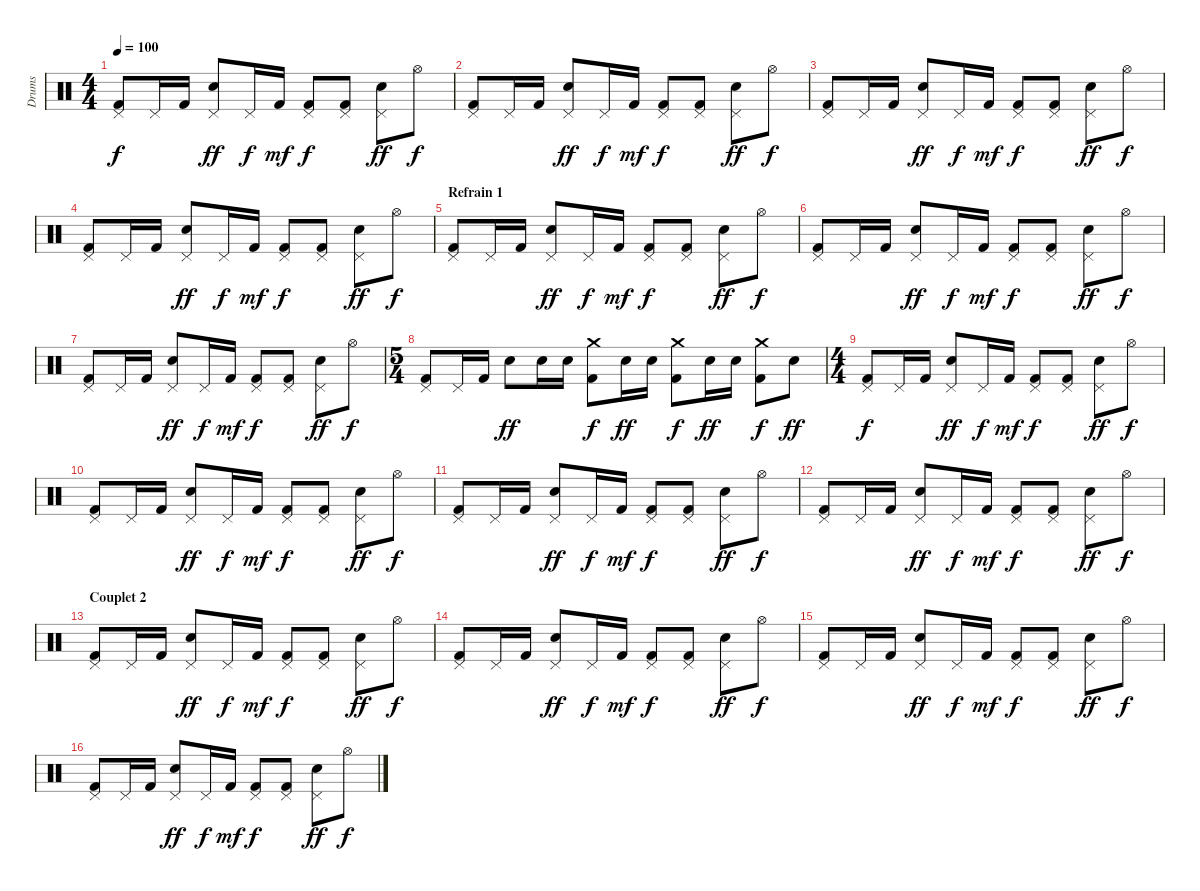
\track ("Drums" "Drums") {instrument percussion}
\staff {score}
\articulation defaults
\ts (4 4)
\tempo 100
\clef neutral
\ks c
("Pedal Hi-Hat (hit)" "Kick (hit) 2").8{dy f} "Pedal Hi-Hat (hit)".16 "Kick (hit) 2".16 ("Pedal Hi-Hat (hit)" "Snare (hit) 2").8{dy ff} "Pedal Hi-Hat (hit)".16{dy f} "Kick (hit) 2".16{dy mf} ("Pedal Hi-Hat (hit)" "Kick (hit) 2").8{dy f} ("Pedal Hi-Hat (hit)" "Kick (hit) 2").8 ("Pedal Hi-Hat (hit)" "Snare (hit) 2").8{dy ff} "Hi-Hat (open)".8{dy f} |
("Pedal Hi-Hat (hit)" "Kick (hit) 2").8 "Pedal Hi-Hat (hit)".16 "Kick (hit) 2".16 ("Pedal Hi-Hat (hit)" "Snare (hit) 2").8{dy ff} "Pedal Hi-Hat (hit)".16{dy f} "Kick (hit) 2".16{dy mf} ("Pedal Hi-Hat (hit)" "Kick (hit) 2").8{dy f} ("Pedal Hi-Hat (hit)" "Kick (hit) 2").8 ("Pedal Hi-Hat (hit)" "Snare (hit) 2").8{dy ff} "Hi-Hat (open)".8{dy f} |
("Pedal Hi-Hat (hit)" "Kick (hit) 2").8 "Pedal Hi-Hat (hit)".16 "Kick (hit) 2".16 ("Pedal Hi-Hat (hit)" "Snare (hit) 2").8{dy ff} "Pedal Hi-Hat (hit)".16{dy f} "Kick (hit) 2".16{dy mf} ("Pedal Hi-Hat (hit)" "Kick (hit) 2").8{dy f} ("Pedal Hi-Hat (hit)" "Kick (hit) 2").8 ("Pedal Hi-Hat (hit)" "Snare (hit) 2").8{dy ff} "Hi-Hat (open)".8{dy f} |
("Pedal Hi-Hat (hit)" "Kick (hit) 2").8 "Pedal Hi-Hat (hit)".16 "Kick (hit) 2".16 ("Pedal Hi-Hat (hit)" "Snare (hit) 2").8{dy ff} "Pedal Hi-Hat (hit)".16{dy f} "Kick (hit) 2".16{dy mf} ("Pedal Hi-Hat (hit)" "Kick (hit) 2").8{dy f} ("Pedal Hi-Hat (hit)" "Kick (hit) 2").8 ("Pedal Hi-Hat (hit)" "Snare (hit) 2").8{dy ff} "Hi-Hat (open)".8{dy f} |
\section ("" "Refrain 1")
("Pedal Hi-Hat (hit)" "Kick (hit) 2").8 "Pedal Hi-Hat (hit)".16 "Kick (hit) 2".16 ("Pedal Hi-Hat (hit)" "Snare (hit) 2").8{dy ff} "Pedal Hi-Hat (hit)".16{dy f} "Kick (hit) 2".16{dy mf} ("Pedal Hi-Hat (hit)" "Kick (hit) 2").8{dy f} ("Pedal Hi-Hat (hit)" "Kick (hit) 2").8 ("Pedal Hi-Hat (hit)" "Snare (hit) 2").8{dy ff} "Hi-Hat (open)".8{dy f} |
("Pedal Hi-Hat (hit)" "Kick (hit) 2").8 "Pedal Hi-Hat (hit)".16 "Kick (hit) 2".16 ("Pedal Hi-Hat (hit)" "Snare (hit) 2").8{dy ff} "Pedal Hi-Hat (hit)".16{dy f} "Kick (hit) 2".16{dy mf} ("Pedal Hi-Hat (hit)" "Kick (hit) 2").8{dy f} ("Pedal Hi-Hat (hit)" "Kick (hit) 2").8 ("Pedal Hi-Hat (hit)" "Snare (hit) 2").8{dy ff} "Hi-Hat (open)".8{dy f} |
("Pedal Hi-Hat (hit)" "Kick (hit) 2").8 "Pedal Hi-Hat (hit)".16 "Kick (hit) 2".16 ("Pedal Hi-Hat (hit)" "Snare (hit) 2").8{dy ff} "Pedal Hi-Hat (hit)".16{dy f} "Kick (hit) 2".16{dy mf} ("Pedal Hi-Hat (hit)" "Kick (hit) 2").8{dy f} ("Pedal Hi-Hat (hit)" "Kick (hit) 2").8 ("Pedal Hi-Hat (hit)" "Snare (hit) 2").8{dy ff} "Hi-Hat (open)".8{dy f} |
\ts (5 4)
("Pedal Hi-Hat (hit)" "Kick (hit) 2").8 "Pedal Hi-Hat (hit)".16 "Kick (hit) 2".16 "Snare (hit) 2".8{dy ff} "Snare (hit) 2".16 "Snare (hit) 2".16 ("Crash medium (hit)" "Kick (hit) 2").8{dy f} "Snare (hit) 2".16{dy ff} "Snare (hit) 2".16 ("Crash medium (hit)" "Kick (hit) 2").8{dy f} "Snare (hit) 2".16{dy ff} "Snare (hit) 2".16 ("Crash medium (hit)" "Kick (hit) 2").8{dy f} "Snare (hit) 2".8{dy ff} |
\ts (4 4)
("Pedal Hi-Hat (hit)" "Kick (hit) 2").8{dy f} "Pedal Hi-Hat (hit)".16 "Kick (hit) 2".16 ("Pedal Hi-Hat (hit)" "Snare (hit) 2").8{dy ff} "Pedal Hi-Hat (hit)".16{dy f} "Kick (hit) 2".16{dy mf} ("Pedal Hi-Hat (hit)" "Kick (hit) 2").8{dy f} ("Pedal Hi-Hat (hit)" "Kick (hit) 2").8 ("Pedal Hi-Hat (hit)" "Snare (hit) 2").8{dy ff} "Hi-Hat (open)".8{dy f} |
("Pedal Hi-Hat (hit)" "Kick (hit) 2").8 "Pedal Hi-Hat (hit)".16 "Kick (hit) 2".16 ("Pedal Hi-Hat (hit)" "Snare (hit) 2").8{dy ff} "Pedal Hi-Hat (hit)".16{dy f} "Kick (hit) 2".16{dy mf} ("Pedal Hi-Hat (hit)" "Kick (hit) 2").8{dy f} ("Pedal Hi-Hat (hit)" "Kick (hit) 2").8 ("Pedal Hi-Hat (hit)" "Snare (hit) 2").8{dy ff} "Hi-Hat (open)".8{dy f} |
("Pedal Hi-Hat (hit)" "Kick (hit) 2").8 "Pedal Hi-Hat (hit)".16 "Kick (hit) 2".16 ("Pedal Hi-Hat (hit)" "Snare (hit) 2").8{dy ff} "Pedal Hi-Hat (hit)".16{dy f} "Kick (hit) 2".16{dy mf} ("Pedal Hi-Hat (hit)" "Kick (hit) 2").8{dy f} ("Pedal Hi-Hat (hit)" "Kick (hit) 2").8 ("Pedal Hi-Hat (hit)" "Snare (hit) 2").8{dy ff} "Hi-Hat (open)".8{dy f} |
("Pedal Hi-Hat (hit)" "Kick (hit) 2").8 "Pedal Hi-Hat (hit)".16 "Kick (hit) 2".16 ("Pedal Hi-Hat (hit)" "Snare (hit) 2").8{dy ff} "Pedal Hi-Hat (hit)".16{dy f} "Kick (hit) 2".16{dy mf} ("Pedal Hi-Hat (hit)" "Kick (hit) 2").8{dy f} ("Pedal Hi-Hat (hit)" "Kick (hit) 2").8 ("Pedal Hi-Hat (hit)" "Snare (hit) 2").8{dy ff} "Hi-Hat (open)".8{dy f} |
\section ("" "Couplet 2")
("Pedal Hi-Hat (hit)" "Kick (hit) 2").8 "Pedal Hi-Hat (hit)".16 "Kick (hit) 2".16 ("Pedal Hi-Hat (hit)" "Snare (hit) 2").8{dy ff} "Pedal Hi-Hat (hit)".16{dy f} "Kick (hit) 2".16{dy mf} ("Pedal Hi-Hat (hit)" "Kick (hit) 2").8{dy f} ("Pedal Hi-Hat (hit)" "Kick (hit) 2").8 ("Pedal Hi-Hat (hit)" "Snare (hit) 2").8{dy ff} "Hi-Hat (open)".8{dy f} |
("Pedal Hi-Hat (hit)" "Kick (hit) 2").8 "Pedal Hi-Hat (hit)".16 "Kick (hit) 2".16 ("Pedal Hi-Hat (hit)" "Snare (hit) 2").8{dy ff} "Pedal Hi-Hat (hit)".16{dy f} "Kick (hit) 2".16{dy mf} ("Pedal Hi-Hat (hit)" "Kick (hit) 2").8{dy f} ("Pedal Hi-Hat (hit)" "Kick (hit) 2").8 ("Pedal Hi-Hat (hit)" "Snare (hit) 2").8{dy ff} "Hi-Hat (open)".8{dy f} |
("Pedal Hi-Hat (hit)" "Kick (hit) 2").8 "Pedal Hi-Hat (hit)".16 "Kick (hit) 2".16 ("Pedal Hi-Hat (hit)" "Snare (hit) 2").8{dy ff} "Pedal Hi-Hat (hit)".16{dy f} "Kick (hit) 2".16{dy mf} ("Pedal Hi-Hat (hit)" "Kick (hit) 2").8{dy f} ("Pedal Hi-Hat (hit)" "Kick (hit) 2").8 ("Pedal Hi-Hat (hit)" "Snare (hit) 2").8{dy ff} "Hi-Hat (open)".8{dy f} |
("Pedal Hi-Hat (hit)" "Kick (hit) 2").8 "Pedal Hi-Hat (hit)".16 "Kick (hit) 2".16 ("Pedal Hi-Hat (hit)" "Snare (hit) 2").8{dy ff} "Pedal Hi-Hat (hit)".16{dy f} "Kick (hit) 2".16{dy mf} ("Pedal Hi-Hat (hit)" "Kick (hit) 2").8{dy f} ("Pedal Hi-Hat (hit)" "Kick (hit) 2").8 ("Pedal Hi-Hat (hit)" "Snare (hit) 2").8{dy ff} "Hi-Hat (open)".8{dy f}
